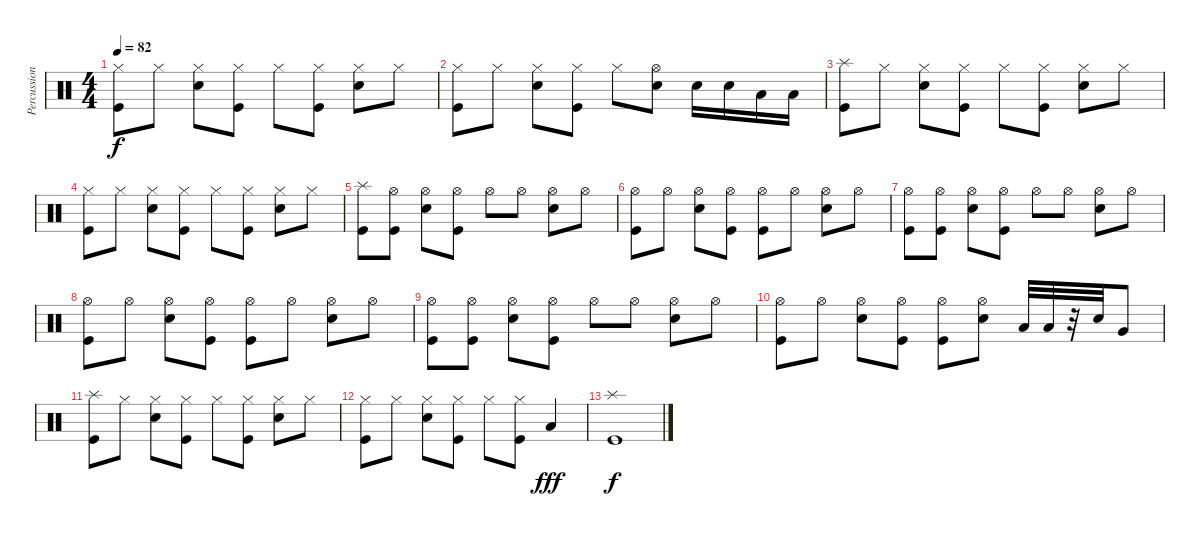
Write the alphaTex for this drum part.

\track ("Percussion" "Percussion") {instrument percussion}
\staff {score}
\articulation defaults
\ts (4 4)
\tempo 82
\clef neutral
\ks c
("Hi-Hat (closed)" "Kick (hit)").8{dy f} "Hi-Hat (closed)".8 ("Hi-Hat (closed)" "Snare (hit) 2").8 ("Hi-Hat (closed)" "Kick (hit)").8 "Hi-Hat (closed)".8 ("Hi-Hat (closed)" "Kick (hit)").8 ("Hi-Hat (closed)" "Snare (hit) 2").8 "Hi-Hat (closed)".8 |
("Hi-Hat (closed)" "Kick (hit)").8 "Hi-Hat (closed)".8 ("Hi-Hat (closed)" "Snare (hit) 2").8 ("Hi-Hat (closed)" "Kick (hit)").8 "Hi-Hat (closed)".8 ("Hi-Hat (open)" "Snare (hit) 2").8 "Snare (hit) 2".16 "Snare (hit) 2".16 "Low Tom (hit)".16 "Low Tom (hit)".16 |
("Splash (hit)" "Kick (hit)").8 "Hi-Hat (closed)".8 ("Hi-Hat (closed)" "Snare (hit) 2").8 ("Hi-Hat (closed)" "Kick (hit)").8 "Hi-Hat (closed)".8 ("Hi-Hat (closed)" "Kick (hit)").8 ("Hi-Hat (closed)" "Snare (hit) 2").8 "Hi-Hat (closed)".8 |
("Hi-Hat (closed)" "Kick (hit)").8 "Hi-Hat (closed)".8 ("Hi-Hat (closed)" "Snare (hit) 2").8 ("Hi-Hat (closed)" "Kick (hit)").8 "Hi-Hat (closed)".8 ("Hi-Hat (closed)" "Kick (hit)").8 ("Hi-Hat (closed)" "Snare (hit) 2").8 "Hi-Hat (closed)".8 |
("Splash (hit)" "Kick (hit)").8 ("Hi-Hat (open)" "Kick (hit)").8 ("Hi-Hat (open)" "Snare (hit) 2").8 ("Hi-Hat (open)" "Kick (hit)").8 "Hi-Hat (open)".8 "Hi-Hat (open)".8 ("Hi-Hat (open)" "Snare (hit) 2").8 "Hi-Hat (open)".8 |
("Hi-Hat (open)" "Kick (hit)").8 "Hi-Hat (open)".8 ("Hi-Hat (open)" "Snare (hit) 2").8 ("Hi-Hat (open)" "Kick (hit)").8 ("Hi-Hat (open)" "Kick (hit)").8 "Hi-Hat (open)".8 ("Hi-Hat (open)" "Snare (hit) 2").8 "Hi-Hat (open)".8 |
("Hi-Hat (open)" "Kick (hit)").8 ("Hi-Hat (open)" "Kick (hit)").8 ("Hi-Hat (open)" "Snare (hit) 2").8 ("Hi-Hat (open)" "Kick (hit)").8 "Hi-Hat (open)".8 "Hi-Hat (open)".8 ("Hi-Hat (open)" "Snare (hit) 2").8 "Hi-Hat (open)".8 |
("Hi-Hat (open)" "Kick (hit)").8 "Hi-Hat (open)".8 ("Hi-Hat (open)" "Snare (hit) 2").8 ("Hi-Hat (open)" "Kick (hit)").8 ("Hi-Hat (open)" "Kick (hit)").8 "Hi-Hat (open)".8 ("Hi-Hat (open)" "Snare (hit) 2").8 "Hi-Hat (open)".8 |
("Hi-Hat (open)" "Kick (hit)").8 ("Hi-Hat (open)" "Kick (hit)").8 ("Hi-Hat (open)" "Snare (hit) 2").8 ("Hi-Hat (open)" "Kick (hit)").8 "Hi-Hat (open)".8 "Hi-Hat (open)".8 ("Hi-Hat (open)" "Snare (hit) 2").8 "Hi-Hat (open)".8 |
("Hi-Hat (open)" "Kick (hit)").8 "Hi-Hat (open)".8 ("Hi-Hat (open)" "Snare (hit) 2").8 ("Hi-Hat (open)" "Kick (hit)").8 ("Hi-Hat (open)" "Kick (hit)").8 ("Hi-Hat (open)" "Snare (hit) 2").8 "Low Tom (hit)".32 "Low Tom (hit)".32 r.32 "Snare (hit) 2".32 "Very Low Tom (hit)".8 |
("Splash (hit)" "Kick (hit)").8 "Hi-Hat (closed)".8 ("Hi-Hat (closed)" "Snare (hit) 2").8 ("Hi-Hat (closed)" "Kick (hit)").8 "Hi-Hat (closed)".8 ("Hi-Hat (closed)" "Kick (hit)").8 ("Hi-Hat (closed)" "Snare (hit) 2").8 "Hi-Hat (closed)".8 |
("Hi-Hat (closed)" "Kick (hit)").8 "Hi-Hat (closed)".8 ("Hi-Hat (closed)" "Snare (hit) 2").8 ("Hi-Hat (closed)" "Kick (hit)").8 "Hi-Hat (closed)".8 ("Hi-Hat (closed)" "Kick (hit)").8 "Low Tom (hit)".4{dy fff} |
("Splash (hit)" "Kick (hit)").1{dy f}
